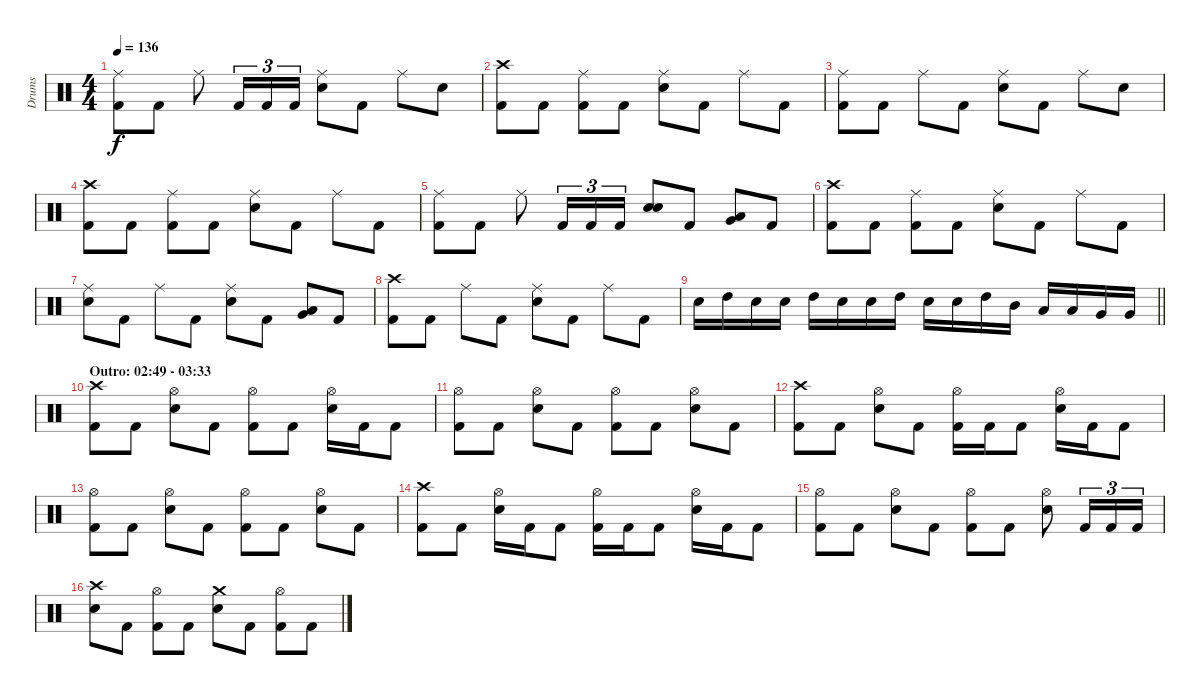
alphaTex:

\track ("Drums" "Drums") {instrument percussion}
\staff {score}
\articulation defaults
\ts (4 4)
\tempo 136
\clef neutral
\ks c
("Ride (middle)" "Kick (hit) 2").8{dy f} "Kick (hit) 2".8 "Ride (middle)".8 "Kick (hit) 2".16{tu (3 2)} "Kick (hit) 2".16{tu (3 2)} "Kick (hit) 2".16{tu (3 2)} ("Ride (middle)" "Electric Snare (hit)").8 "Kick (hit) 2".8 "Ride (middle)".8 "Electric Snare (hit)".8 |
("Crash high (hit)" "Kick (hit) 2").8 "Kick (hit) 2".8 ("Ride (middle)" "Kick (hit) 2").8 "Kick (hit) 2".8 ("Ride (middle)" "Electric Snare (hit)").8 "Kick (hit) 2".8 "Ride (middle)".8 "Kick (hit) 2".8 |
("Ride (middle)" "Kick (hit) 2").8 "Kick (hit) 2".8 "Ride (middle)".8 "Kick (hit) 2".8 ("Ride (middle)" "Electric Snare (hit)").8 "Kick (hit) 2".8 "Ride (middle)".8 "Electric Snare (hit)".8 |
("Crash high (hit)" "Kick (hit) 2").8 "Kick (hit) 2".8 ("Ride (middle)" "Kick (hit) 2").8 "Kick (hit) 2".8 ("Ride (middle)" "Electric Snare (hit)").8 "Kick (hit) 2".8 "Ride (middle)".8 "Kick (hit) 2".8 |
("Ride (middle)" "Kick (hit) 2").8 "Kick (hit) 2".8 "Ride (middle)".8 "Kick (hit) 2".16{tu (3 2)} "Kick (hit) 2".16{tu (3 2)} "Kick (hit) 2".16{tu (3 2)} ("Electric Snare (hit)" "Electric Snare (hit)").8{bd 240} "Kick (hit) 2".8 ("Low Tom (hit)" "Very Low Tom (hit)").8 "Kick (hit) 2".8 |
("Crash high (hit)" "Kick (hit) 2").8 "Kick (hit) 2".8 ("Ride (middle)" "Kick (hit) 2").8 "Kick (hit) 2".8 ("Ride (middle)" "Electric Snare (hit)").8 "Kick (hit) 2".8 "Ride (middle)".8 "Kick (hit) 2".8 |
("Ride (middle)" "Electric Snare (hit)").8 "Kick (hit) 2".8 "Ride (middle)".8 "Kick (hit) 2".8 ("Ride (middle)" "Electric Snare (hit)").8 "Kick (hit) 2".8 ("Low Tom (hit)" "Very Low Tom (hit)").8 "Kick (hit) 2".8 |
("Crash high (hit)" "Kick (hit) 2").8 "Kick (hit) 2".8 "Ride (middle)".8 "Kick (hit) 2".8 ("Ride (middle)" "Electric Snare (hit)").8 "Kick (hit) 2".8 "Ride (middle)".8 "Kick (hit) 2".8 |
\barLineRight lightlight "Electric Snare (hit)".16 "High Tom (hit)".16 "Electric Snare (hit)".16 "Electric Snare (hit)".16 "High Tom (hit)".16 "Electric Snare (hit)".16 "Electric Snare (hit)".16 "High Tom (hit)".16 "Electric Snare (hit)".16 "Electric Snare (hit)".16 "High Tom (hit)".16 "Mid Tom (hit)".16 "Low Tom (hit)".16 "Low Tom (hit)".16 "Very Low Tom (hit)".16 "Very Low Tom (hit)".16
|
\section ("" "Outro: 02:49 - 03:33")
("Crash high (hit)" "Kick (hit) 2").8 "Kick (hit) 2".8 ("Hi-Hat (open)" "Electric Snare (hit)").8 "Kick (hit) 2".8 ("Hi-Hat (open)" "Kick (hit) 2").8 "Kick (hit) 2".8 ("Hi-Hat (open)" "Electric Snare (hit)").16 "Kick (hit) 2".16 "Kick (hit) 2".8 |
("Hi-Hat (open)" "Kick (hit) 2").8 "Kick (hit) 2".8 ("Hi-Hat (open)" "Electric Snare (hit)").8 "Kick (hit) 2".8 ("Hi-Hat (open)" "Kick (hit) 2").8 "Kick (hit) 2".8 ("Hi-Hat (open)" "Electric Snare (hit)").8 "Kick (hit) 2".8 |
("Crash high (hit)" "Kick (hit) 2").8 "Kick (hit) 2".8 ("Hi-Hat (open)" "Electric Snare (hit)").8 "Kick (hit) 2".8 ("Hi-Hat (open)" "Kick (hit) 2").16 "Kick (hit) 2".16 "Kick (hit) 2".8 ("Hi-Hat (open)" "Electric Snare (hit)").16 "Kick (hit) 2".16 "Kick (hit) 2".8 |
("Hi-Hat (open)" "Kick (hit) 2").8 "Kick (hit) 2".8 ("Hi-Hat (open)" "Electric Snare (hit)").8 "Kick (hit) 2".8 ("Hi-Hat (open)" "Kick (hit) 2").8 "Kick (hit) 2".8 ("Hi-Hat (open)" "Electric Snare (hit)").8 "Kick (hit) 2".8 |
("Crash high (hit)" "Kick (hit) 2").8 "Kick (hit) 2".8 ("Hi-Hat (open)" "Electric Snare (hit)").16 "Kick (hit) 2".16 "Kick (hit) 2".8 ("Hi-Hat (open)" "Kick (hit) 2").16 "Kick (hit) 2".16 "Kick (hit) 2".8 ("Hi-Hat (open)" "Electric Snare (hit)").16 "Kick (hit) 2".16 "Kick (hit) 2".8 |
("Hi-Hat (open)" "Kick (hit) 2").8 "Kick (hit) 2".8 ("Hi-Hat (open)" "Electric Snare (hit)").8 "Kick (hit) 2".8 ("Hi-Hat (open)" "Kick (hit) 2").8 "Kick (hit) 2".8 ("Hi-Hat (open)" "Electric Snare (hit)").8 "Kick (hit) 2".16{tu (3 2)} "Kick (hit) 2".16{tu (3 2)} "Kick (hit) 2".16{tu (3 2)} |
("Crash high (hit)" "Electric Snare (hit)").8 "Kick (hit) 2".8 ("Hi-Hat (open)" "Kick (hit) 2").8 "Kick (hit) 2".8 ("Crash medium (hit)" "Electric Snare (hit)").8 "Kick (hit) 2".8 ("Hi-Hat (open)" "Kick (hit) 2").8 "Kick (hit) 2".8
